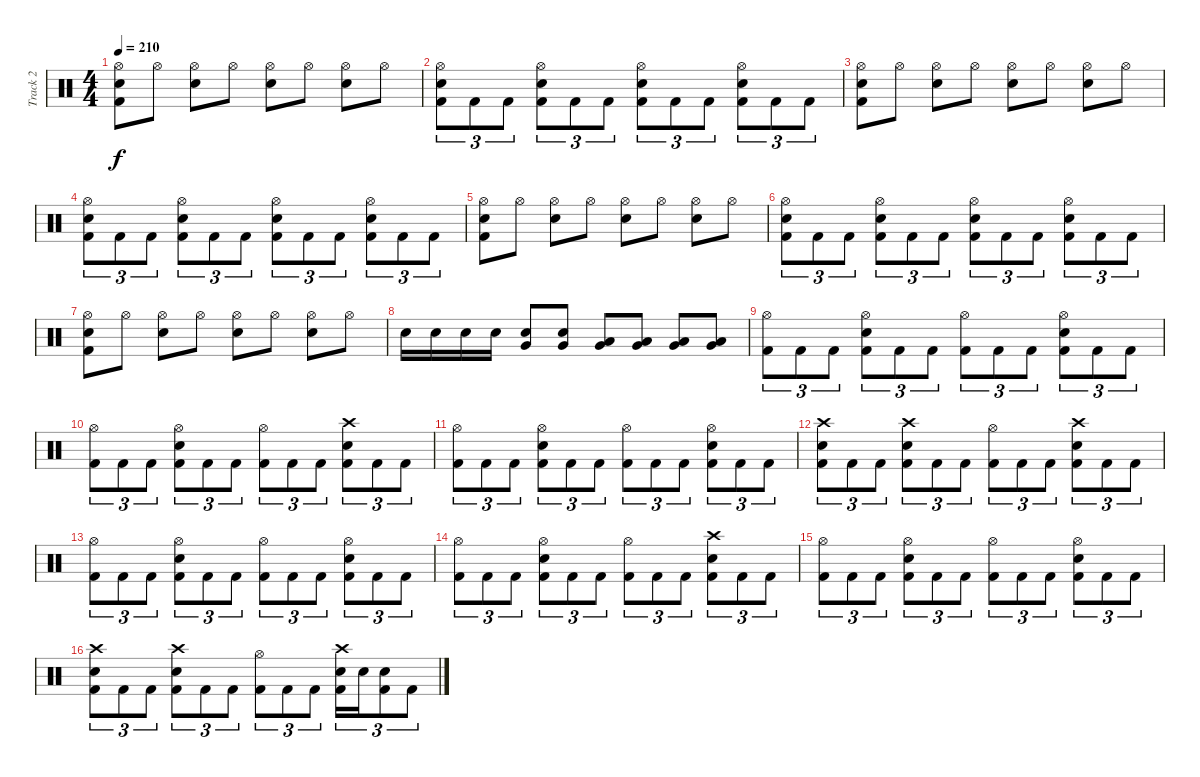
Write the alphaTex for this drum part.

\track ("Track 2" "Track 2") {instrument percussion}
\staff {score}
\articulation defaults
\ts (4 4)
\tempo 210
\clef neutral
\ks c
("Hi-Hat (open)" "Snare (hit) 2" "Kick (hit) 2").8{dy f} "Hi-Hat (open)".8 ("Hi-Hat (open)" "Snare (hit) 2").8 "Hi-Hat (open)".8 ("Hi-Hat (open)" "Snare (hit) 2").8 "Hi-Hat (open)".8 ("Hi-Hat (open)" "Snare (hit) 2").8 "Hi-Hat (open)".8 |
("Hi-Hat (open)" "Snare (hit) 2" "Kick (hit) 2").8{tu (3 2)} "Kick (hit) 2".8{tu (3 2)} "Kick (hit) 2".8{tu (3 2)} ("Hi-Hat (open)" "Snare (hit) 2" "Kick (hit) 2").8{tu (3 2)} "Kick (hit) 2".8{tu (3 2)} "Kick (hit) 2".8{tu (3 2)} ("Hi-Hat (open)" "Snare (hit) 2" "Kick (hit) 2").8{tu (3 2)} "Kick (hit) 2".8{tu (3 2)} "Kick (hit) 2".8{tu (3 2)} ("Hi-Hat (open)" "Snare (hit) 2" "Kick (hit) 2").8{tu (3 2)} "Kick (hit) 2".8{tu (3 2)} "Kick (hit) 2".8{tu (3 2)} |
("Hi-Hat (open)" "Snare (hit) 2" "Kick (hit) 2").8 "Hi-Hat (open)".8 ("Hi-Hat (open)" "Snare (hit) 2").8 "Hi-Hat (open)".8 ("Hi-Hat (open)" "Snare (hit) 2").8 "Hi-Hat (open)".8 ("Hi-Hat (open)" "Snare (hit) 2").8 "Hi-Hat (open)".8 |
("Hi-Hat (open)" "Snare (hit) 2" "Kick (hit) 2").8{tu (3 2)} "Kick (hit) 2".8{tu (3 2)} "Kick (hit) 2".8{tu (3 2)} ("Hi-Hat (open)" "Snare (hit) 2" "Kick (hit) 2").8{tu (3 2)} "Kick (hit) 2".8{tu (3 2)} "Kick (hit) 2".8{tu (3 2)} ("Hi-Hat (open)" "Snare (hit) 2" "Kick (hit) 2").8{tu (3 2)} "Kick (hit) 2".8{tu (3 2)} "Kick (hit) 2".8{tu (3 2)} ("Hi-Hat (open)" "Snare (hit) 2" "Kick (hit) 2").8{tu (3 2)} "Kick (hit) 2".8{tu (3 2)} "Kick (hit) 2".8{tu (3 2)} |
("Hi-Hat (open)" "Snare (hit) 2" "Kick (hit) 2").8 "Hi-Hat (open)".8 ("Hi-Hat (open)" "Snare (hit) 2").8 "Hi-Hat (open)".8 ("Hi-Hat (open)" "Snare (hit) 2").8 "Hi-Hat (open)".8 ("Hi-Hat (open)" "Snare (hit) 2").8 "Hi-Hat (open)".8 |
("Hi-Hat (open)" "Snare (hit) 2" "Kick (hit) 2").8{tu (3 2)} "Kick (hit) 2".8{tu (3 2)} "Kick (hit) 2".8{tu (3 2)} ("Hi-Hat (open)" "Snare (hit) 2" "Kick (hit) 2").8{tu (3 2)} "Kick (hit) 2".8{tu (3 2)} "Kick (hit) 2".8{tu (3 2)} ("Hi-Hat (open)" "Snare (hit) 2" "Kick (hit) 2").8{tu (3 2)} "Kick (hit) 2".8{tu (3 2)} "Kick (hit) 2".8{tu (3 2)} ("Hi-Hat (open)" "Snare (hit) 2" "Kick (hit) 2").8{tu (3 2)} "Kick (hit) 2".8{tu (3 2)} "Kick (hit) 2".8{tu (3 2)} |
("Hi-Hat (open)" "Snare (hit) 2" "Kick (hit) 2").8 "Hi-Hat (open)".8 ("Hi-Hat (open)" "Snare (hit) 2").8 "Hi-Hat (open)".8 ("Hi-Hat (open)" "Snare (hit) 2").8 "Hi-Hat (open)".8 ("Hi-Hat (open)" "Snare (hit) 2").8 "Hi-Hat (open)".8 |
"Snare (hit) 2".16 "Snare (hit) 2".16 "Snare (hit) 2".16 "Snare (hit) 2".16 ("Snare (hit) 2" "Very Low Tom (hit)").8 ("Snare (hit) 2" "Very Low Tom (hit)").8 ("Low Tom (hit)" "Very Low Tom (hit)").8 ("Low Tom (hit)" "Very Low Tom (hit)").8 ("Very Low Tom (hit)" "Low Floor Tom (hit)").8 ("Very Low Tom (hit)" "Low Floor Tom (hit)").8 |
("Hi-Hat (open)" "Kick (hit) 2").8{tu (3 2)} "Kick (hit) 2".8{tu (3 2)} "Kick (hit) 2".8{tu (3 2)} ("Hi-Hat (open)" "Snare (hit) 2" "Kick (hit) 2").8{tu (3 2)} "Kick (hit) 2".8{tu (3 2)} "Kick (hit) 2".8{tu (3 2)} ("Hi-Hat (open)" "Kick (hit) 2").8{tu (3 2)} "Kick (hit) 2".8{tu (3 2)} "Kick (hit) 2".8{tu (3 2)} ("Hi-Hat (open)" "Snare (hit) 2" "Kick (hit) 2").8{tu (3 2)} "Kick (hit) 2".8{tu (3 2)} "Kick (hit) 2".8{tu (3 2)} |
("Hi-Hat (open)" "Kick (hit) 2").8{tu (3 2)} "Kick (hit) 2".8{tu (3 2)} "Kick (hit) 2".8{tu (3 2)} ("Hi-Hat (open)" "Snare (hit) 2" "Kick (hit) 2").8{tu (3 2)} "Kick (hit) 2".8{tu (3 2)} "Kick (hit) 2".8{tu (3 2)} ("Hi-Hat (open)" "Kick (hit) 2").8{tu (3 2)} "Kick (hit) 2".8{tu (3 2)} "Kick (hit) 2".8{tu (3 2)} ("Crash high (hit)" "Snare (hit) 2" "Kick (hit) 2").8{tu (3 2)} "Kick (hit) 2".8{tu (3 2)} "Kick (hit) 2".8{tu (3 2)} |
("Hi-Hat (open)" "Kick (hit) 2").8{tu (3 2)} "Kick (hit) 2".8{tu (3 2)} "Kick (hit) 2".8{tu (3 2)} ("Hi-Hat (open)" "Snare (hit) 2" "Kick (hit) 2").8{tu (3 2)} "Kick (hit) 2".8{tu (3 2)} "Kick (hit) 2".8{tu (3 2)} ("Hi-Hat (open)" "Kick (hit) 2").8{tu (3 2)} "Kick (hit) 2".8{tu (3 2)} "Kick (hit) 2".8{tu (3 2)} ("Hi-Hat (open)" "Snare (hit) 2" "Kick (hit) 2").8{tu (3 2)} "Kick (hit) 2".8{tu (3 2)} "Kick (hit) 2".8{tu (3 2)} |
("Crash high (hit)" "Snare (hit) 2" "Kick (hit) 2").8{tu (3 2)} "Kick (hit) 2".8{tu (3 2)} "Kick (hit) 2".8{tu (3 2)} ("Crash high (hit)" "Snare (hit) 2" "Kick (hit) 2").8{tu (3 2)} "Kick (hit) 2".8{tu (3 2)} "Kick (hit) 2".8{tu (3 2)} ("Hi-Hat (open)" "Kick (hit) 2").8{tu (3 2)} "Kick (hit) 2".8{tu (3 2)} "Kick (hit) 2".8{tu (3 2)} ("Crash high (hit)" "Snare (hit) 2" "Kick (hit) 2").8{tu (3 2)} "Kick (hit) 2".8{tu (3 2)} "Kick (hit) 2".8{tu (3 2)} |
("Hi-Hat (open)" "Kick (hit) 2").8{tu (3 2)} "Kick (hit) 2".8{tu (3 2)} "Kick (hit) 2".8{tu (3 2)} ("Hi-Hat (open)" "Snare (hit) 2" "Kick (hit) 2").8{tu (3 2)} "Kick (hit) 2".8{tu (3 2)} "Kick (hit) 2".8{tu (3 2)} ("Hi-Hat (open)" "Kick (hit) 2").8{tu (3 2)} "Kick (hit) 2".8{tu (3 2)} "Kick (hit) 2".8{tu (3 2)} ("Hi-Hat (open)" "Snare (hit) 2" "Kick (hit) 2").8{tu (3 2)} "Kick (hit) 2".8{tu (3 2)} "Kick (hit) 2".8{tu (3 2)} |
("Hi-Hat (open)" "Kick (hit) 2").8{tu (3 2)} "Kick (hit) 2".8{tu (3 2)} "Kick (hit) 2".8{tu (3 2)} ("Hi-Hat (open)" "Snare (hit) 2" "Kick (hit) 2").8{tu (3 2)} "Kick (hit) 2".8{tu (3 2)} "Kick (hit) 2".8{tu (3 2)} ("Hi-Hat (open)" "Kick (hit) 2").8{tu (3 2)} "Kick (hit) 2".8{tu (3 2)} "Kick (hit) 2".8{tu (3 2)} ("Crash high (hit)" "Snare (hit) 2" "Kick (hit) 2").8{tu (3 2)} "Kick (hit) 2".8{tu (3 2)} "Kick (hit) 2".8{tu (3 2)} |
("Hi-Hat (open)" "Kick (hit) 2").8{tu (3 2)} "Kick (hit) 2".8{tu (3 2)} "Kick (hit) 2".8{tu (3 2)} ("Hi-Hat (open)" "Snare (hit) 2" "Kick (hit) 2").8{tu (3 2)} "Kick (hit) 2".8{tu (3 2)} "Kick (hit) 2".8{tu (3 2)} ("Hi-Hat (open)" "Kick (hit) 2").8{tu (3 2)} "Kick (hit) 2".8{tu (3 2)} "Kick (hit) 2".8{tu (3 2)} ("Hi-Hat (open)" "Snare (hit) 2" "Kick (hit) 2").8{tu (3 2)} "Kick (hit) 2".8{tu (3 2)} "Kick (hit) 2".8{tu (3 2)} |
("Crash high (hit)" "Snare (hit) 2" "Kick (hit) 2").8{tu (3 2)} "Kick (hit) 2".8{tu (3 2)} "Kick (hit) 2".8{tu (3 2)} ("Crash high (hit)" "Snare (hit) 2" "Kick (hit) 2").8{tu (3 2)} "Kick (hit) 2".8{tu (3 2)} "Kick (hit) 2".8{tu (3 2)} ("Hi-Hat (open)" "Kick (hit) 2").8{tu (3 2)} "Kick (hit) 2".8{tu (3 2)} "Kick (hit) 2".8{tu (3 2)} ("Crash high (hit)" "Snare (hit) 2" "Kick (hit) 2").16{tu (3 2)} "Snare (hit) 2".16{tu (3 2)} ("Snare (hit) 2" "Kick (hit) 2").8{tu (3 2)} "Kick (hit) 2".8{tu (3 2)}
